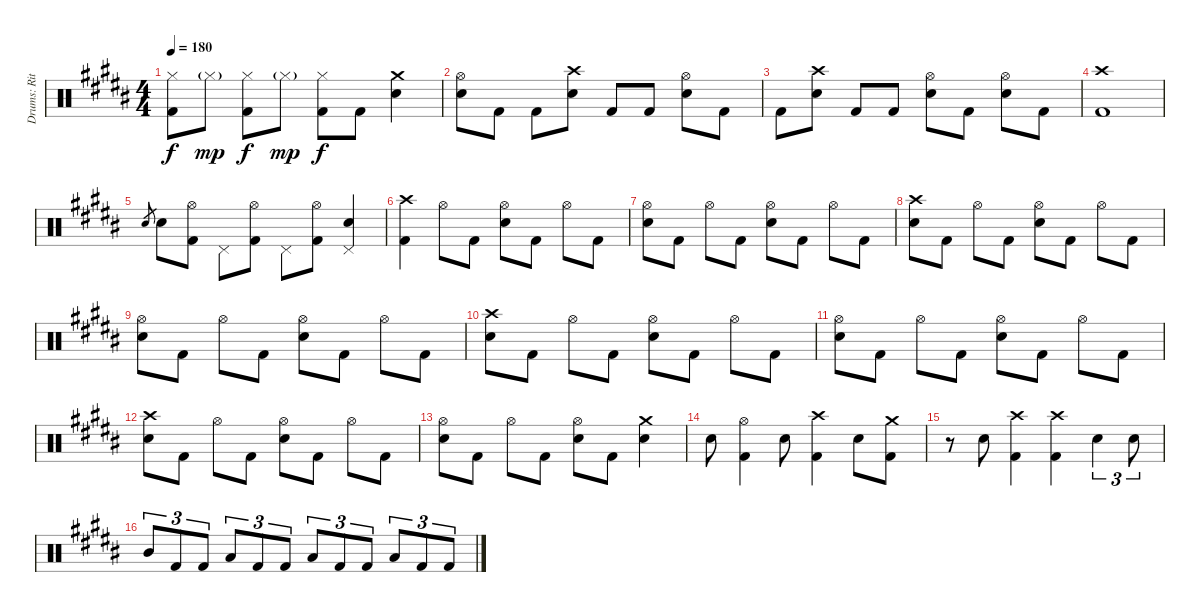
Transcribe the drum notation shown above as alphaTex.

\track ("Drums: Ritsu " "Drums: Rit") {instrument percussion}
\staff {score}
\articulation defaults
\ts (4 4)
\tempo 180
\clef neutral
\ks b
("Hi-Hat (closed)" "Kick (hit) 2").8{dy f} "Hi-Hat (closed)"{g}.8{dy mp} ("Hi-Hat (closed)" "Kick (hit) 2").8{dy f} "Hi-Hat (closed)"{g}.8{dy mp} ("Hi-Hat (closed)" "Kick (hit) 2").8{dy f} "Kick (hit) 2".8 ("Crash medium (hit)" "Electric Snare (hit)").4 |
("Hi-Hat (open)" "Electric Snare (hit)").8 "Kick (hit) 2".8 "Kick (hit) 2".8 ("Crash high (hit)" "Electric Snare (hit)").8 "Kick (hit) 2".8 "Kick (hit) 2".8 ("Hi-Hat (open)" "Electric Snare (hit)").8 "Kick (hit) 2".8 |
"Kick (hit) 2".8 ("Crash high (hit)" "Electric Snare (hit)").8 "Kick (hit) 2".8 "Kick (hit) 2".8 ("Hi-Hat (open)" "Electric Snare (hit)").8 "Kick (hit) 2".8 ("Hi-Hat (open)" "Electric Snare (hit)").8 "Kick (hit) 2".8 |
("Crash high (hit)" "Kick (hit) 2").1 |
"Electric Snare (hit)".8{gr} "Electric Snare (hit)".8 ("Hi-Hat (open)" "Kick (hit) 2").8 "Pedal Hi-Hat (hit)".8 ("Hi-Hat (open)" "Kick (hit) 2").8 "Pedal Hi-Hat (hit)".8 ("Hi-Hat (open)" "Kick (hit) 2").8 ("Pedal Hi-Hat (hit)" "Electric Snare (hit)").4 |
("Crash high (hit)" "Kick (hit) 2").4 "Hi-Hat (open)".8 "Kick (hit) 2".8 ("Hi-Hat (open)" "Electric Snare (hit)").8 "Kick (hit) 2".8 "Hi-Hat (open)".8 "Kick (hit) 2".8 |
("Hi-Hat (open)" "Electric Snare (hit)").8 "Kick (hit) 2".8 "Hi-Hat (open)".8 "Kick (hit) 2".8 ("Hi-Hat (open)" "Electric Snare (hit)").8 "Kick (hit) 2".8 "Hi-Hat (open)".8 "Kick (hit) 2".8 |
("Crash high (hit)" "Electric Snare (hit)").8 "Kick (hit) 2".8 "Hi-Hat (open)".8 "Kick (hit) 2".8 ("Hi-Hat (open)" "Electric Snare (hit)").8 "Kick (hit) 2".8 "Hi-Hat (open)".8 "Kick (hit) 2".8 |
("Hi-Hat (open)" "Electric Snare (hit)").8 "Kick (hit) 2".8 "Hi-Hat (open)".8 "Kick (hit) 2".8 ("Hi-Hat (open)" "Electric Snare (hit)").8 "Kick (hit) 2".8 "Hi-Hat (open)".8 "Kick (hit) 2".8 |
("Crash high (hit)" "Electric Snare (hit)").8 "Kick (hit) 2".8 "Hi-Hat (open)".8 "Kick (hit) 2".8 ("Hi-Hat (open)" "Electric Snare (hit)").8 "Kick (hit) 2".8 "Hi-Hat (open)".8 "Kick (hit) 2".8 |
("Hi-Hat (open)" "Electric Snare (hit)").8 "Kick (hit) 2".8 "Hi-Hat (open)".8 "Kick (hit) 2".8 ("Hi-Hat (open)" "Electric Snare (hit)").8 "Kick (hit) 2".8 "Hi-Hat (open)".8 "Kick (hit) 2".8 |
("Crash high (hit)" "Electric Snare (hit)").8 "Kick (hit) 2".8 "Hi-Hat (open)".8 "Kick (hit) 2".8 ("Hi-Hat (open)" "Electric Snare (hit)").8 "Kick (hit) 2".8 "Hi-Hat (open)".8 "Kick (hit) 2".8 |
("Hi-Hat (open)" "Electric Snare (hit)").8 "Kick (hit) 2".8 "Hi-Hat (open)".8 "Kick (hit) 2".8 ("Hi-Hat (open)" "Electric Snare (hit)").8 "Kick (hit) 2".8 ("Crash medium (hit)" "Electric Snare (hit)").4 |
"Electric Snare (hit)".8 ("Hi-Hat (open)" "Kick (hit) 2").4 "Electric Snare (hit)".8 ("Crash high (hit)" "Kick (hit) 2").4 "Electric Snare (hit)".8 ("Crash medium (hit)" "Kick (hit) 2").8 |
r.8 "Electric Snare (hit)".8 ("Crash high (hit)" "Kick (hit) 2").4 ("Crash high (hit)" "Kick (hit) 2").4 "Electric Snare (hit)".4{tu (3 2)} "Electric Snare (hit)".8{tu (3 2)} |
"Mid Tom (hit)".8{tu (3 2)} "Kick (hit) 2".8{tu (3 2)} "Kick (hit) 2".8{tu (3 2)} "Low Tom (hit)".8{tu (3 2)} "Kick (hit) 2".8{tu (3 2)} "Kick (hit) 2".8{tu (3 2)} "Low Floor Tom (hit)".8{tu (3 2)} "Kick (hit) 2".8{tu (3 2)} "Kick (hit) 2".8{tu (3 2)} "Low Tom (hit)".8{tu (3 2)} "Kick (hit) 2".8{tu (3 2)} "Kick (hit) 2".8{tu (3 2)}
